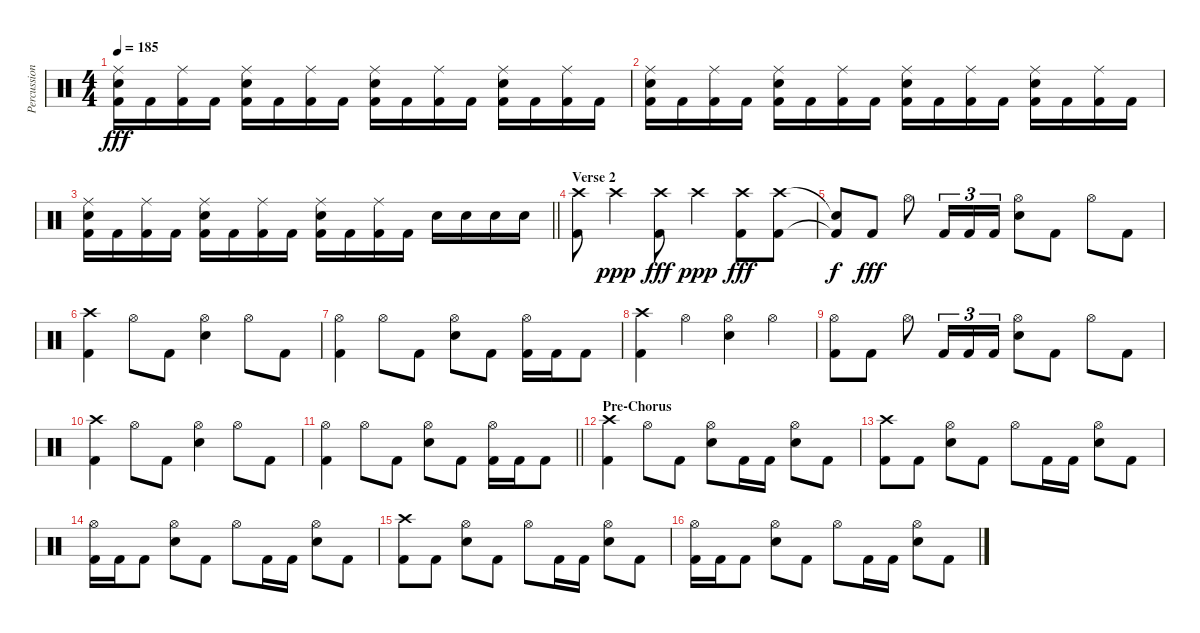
\track ("Percussion" "Percussion") {instrument percussion}
\staff {score}
\articulation defaults
\ts (4 4)
\tempo 185
\clef neutral
\ks c
("Ride (middle)" "Electric Snare (hit)" "Kick (hit) 2").16{dy fff} "Kick (hit) 2".16 ("Ride (middle)" "Kick (hit) 2").16 "Kick (hit) 2".16 ("Ride (middle)" "Electric Snare (hit)" "Kick (hit) 2").16 "Kick (hit) 2".16 ("Ride (middle)" "Kick (hit) 2").16 "Kick (hit) 2".16 ("Ride (middle)" "Electric Snare (hit)" "Kick (hit) 2").16 "Kick (hit) 2".16 ("Ride (middle)" "Kick (hit) 2").16 "Kick (hit) 2".16 ("Ride (middle)" "Electric Snare (hit)" "Kick (hit) 2").16 "Kick (hit) 2".16 ("Ride (middle)" "Kick (hit) 2").16 "Kick (hit) 2".16 |
("Ride (middle)" "Electric Snare (hit)" "Kick (hit) 2").16 "Kick (hit) 2".16 ("Ride (middle)" "Kick (hit) 2").16 "Kick (hit) 2".16 ("Ride (middle)" "Electric Snare (hit)" "Kick (hit) 2").16 "Kick (hit) 2".16 ("Ride (middle)" "Kick (hit) 2").16 "Kick (hit) 2".16 ("Ride (middle)" "Electric Snare (hit)" "Kick (hit) 2").16 "Kick (hit) 2".16 ("Ride (middle)" "Kick (hit) 2").16 "Kick (hit) 2".16 ("Ride (middle)" "Electric Snare (hit)" "Kick (hit) 2").16 "Kick (hit) 2".16 ("Ride (middle)" "Kick (hit) 2").16 "Kick (hit) 2".16 |
\barLineRight lightlight
("Ride (middle)" "Electric Snare (hit)" "Kick (hit) 2").16 "Kick (hit) 2".16 ("Ride (middle)" "Kick (hit) 2").16 "Kick (hit) 2".16 ("Ride (middle)" "Electric Snare (hit)" "Kick (hit) 2").16 "Kick (hit) 2".16 ("Ride (middle)" "Kick (hit) 2").16 "Kick (hit) 2".16 ("Ride (middle)" "Electric Snare (hit)" "Kick (hit) 2").16 "Kick (hit) 2".16 ("Ride (middle)" "Kick (hit) 2").16 "Kick (hit) 2".16 "Electric Snare (hit)".16 "Electric Snare (hit)".16 "Electric Snare (hit)".16 "Electric Snare (hit)".16 |
\section ("" "Verse 2")
("Crash high (hit)" "Kick (hit) 2").8 "Crash high (hit)".4{dy ppp} ("Crash high (hit)" "Kick (hit) 2").8{dy fff} "Crash high (hit)".4{dy ppp} ("Crash high (hit)" "Kick (hit) 2").8{dy fff} ("Crash high (hit)" "Kick (hit) 2").8 |
("Snare (hit)"{t} "Kick (hit) 2"{t}).8{dy f} "Kick (hit) 2".8{dy fff} "Hi-Hat (open)".8 "Kick (hit) 2".16{tu (3 2)} "Kick (hit) 2".16{tu (3 2)} "Kick (hit) 2".16{tu (3 2)} ("Hi-Hat (open)" "Electric Snare (hit)").8 "Kick (hit) 2".8 "Hi-Hat (open)".8 "Kick (hit) 2".8 |
("Crash high (hit)" "Kick (hit) 2").4 "Hi-Hat (open)".8 "Kick (hit) 2".8 ("Hi-Hat (open)" "Electric Snare (hit)").4 "Hi-Hat (open)".8 "Kick (hit) 2".8 |
("Hi-Hat (open)" "Kick (hit) 2").4 "Hi-Hat (open)".8 "Kick (hit) 2".8 ("Hi-Hat (open)" "Electric Snare (hit)").8 "Kick (hit) 2".8 ("Hi-Hat (open)" "Kick (hit) 2").16 "Kick (hit) 2".16 "Kick (hit) 2".8 |
("Crash high (hit)" "Kick (hit) 2").4 "Hi-Hat (open)".4 ("Hi-Hat (open)" "Electric Snare (hit)").4 "Hi-Hat (open)".4 |
("Hi-Hat (open)" "Kick (hit) 2").8 "Kick (hit) 2".8 "Hi-Hat (open)".8 "Kick (hit) 2".16{tu (3 2)} "Kick (hit) 2".16{tu (3 2)} "Kick (hit) 2".16{tu (3 2)} ("Hi-Hat (open)" "Electric Snare (hit)").8 "Kick (hit) 2".8 "Hi-Hat (open)".8 "Kick (hit) 2".8 |
("Crash high (hit)" "Kick (hit) 2").4 "Hi-Hat (open)".8 "Kick (hit) 2".8 ("Hi-Hat (open)" "Electric Snare (hit)").4 "Hi-Hat (open)".8 "Kick (hit) 2".8 |
\barLineRight lightlight
("Hi-Hat (open)" "Kick (hit) 2").4 "Hi-Hat (open)".8 "Kick (hit) 2".8 ("Hi-Hat (open)" "Electric Snare (hit)").8 "Kick (hit) 2".8 ("Hi-Hat (open)" "Kick (hit) 2").16 "Kick (hit) 2".16 "Kick (hit) 2".8 |
\section ("" "Pre-Chorus")
("Crash high (hit)" "Kick (hit) 2").4 "Hi-Hat (open)".8 "Kick (hit) 2".8 ("Hi-Hat (open)" "Electric Snare (hit)").8 "Kick (hit) 2".16 "Kick (hit) 2".16 ("Hi-Hat (open)" "Electric Snare (hit)").8 "Kick (hit) 2".8 |
("Crash high (hit)" "Kick (hit) 2").8 "Kick (hit) 2".8 ("Hi-Hat (open)" "Electric Snare (hit)").8 "Kick (hit) 2".8 "Hi-Hat (open)".8 "Kick (hit) 2".16 "Kick (hit) 2".16 ("Hi-Hat (open)" "Electric Snare (hit)").8 "Kick (hit) 2".8 |
("Hi-Hat (open)" "Kick (hit) 2").16 "Kick (hit) 2".16 "Kick (hit) 2".8 ("Hi-Hat (open)" "Electric Snare (hit)").8 "Kick (hit) 2".8 "Hi-Hat (open)".8 "Kick (hit) 2".16 "Kick (hit) 2".16 ("Hi-Hat (open)" "Electric Snare (hit)").8 "Kick (hit) 2".8 |
("Crash high (hit)" "Kick (hit) 2").8 "Kick (hit) 2".8 ("Hi-Hat (open)" "Electric Snare (hit)").8 "Kick (hit) 2".8 "Hi-Hat (open)".8 "Kick (hit) 2".16 "Kick (hit) 2".16 ("Hi-Hat (open)" "Electric Snare (hit)").8 "Kick (hit) 2".8 |
("Hi-Hat (open)" "Kick (hit) 2").16 "Kick (hit) 2".16 "Kick (hit) 2".8 ("Hi-Hat (open)" "Electric Snare (hit)").8 "Kick (hit) 2".8 "Hi-Hat (open)".8 "Kick (hit) 2".16 "Kick (hit) 2".16 ("Hi-Hat (open)" "Electric Snare (hit)").8 "Kick (hit) 2".8
